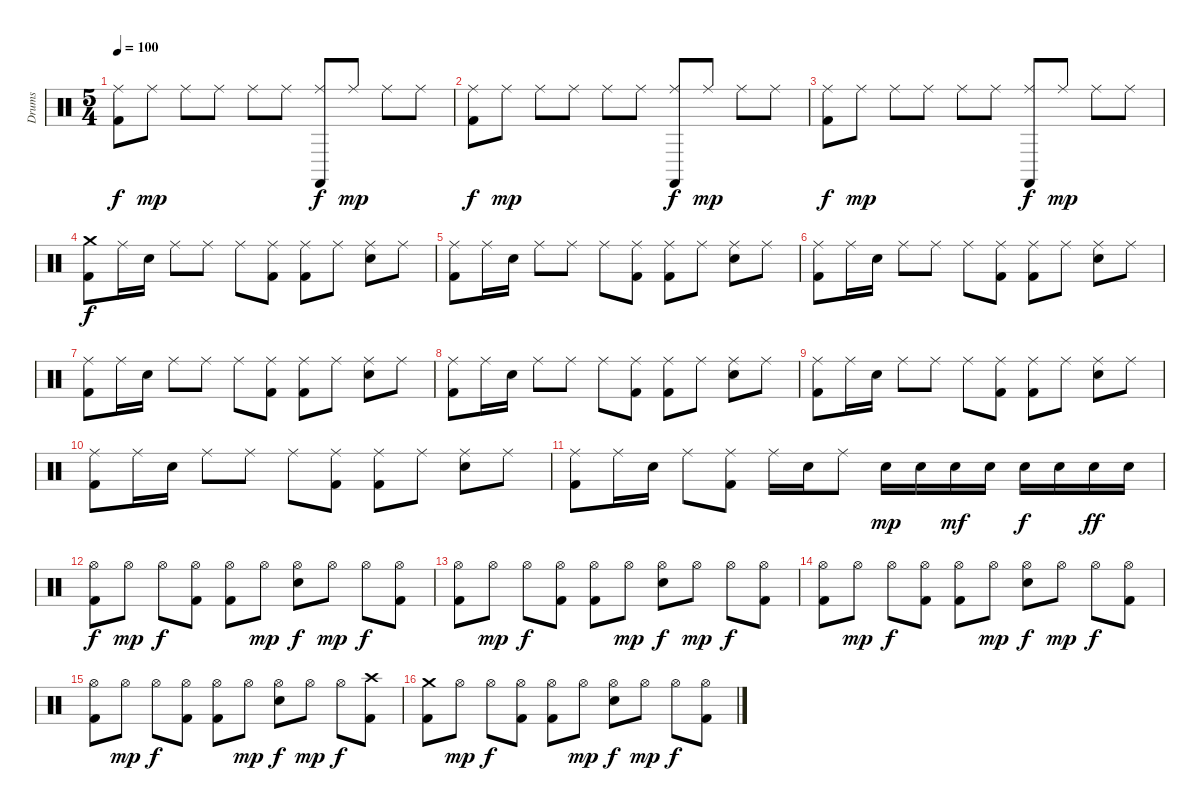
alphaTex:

\track ("Drums" "Drums") {instrument percussion}
\staff {score}
\articulation defaults
\ts (5 4)
\tempo 100
\clef neutral
\ks c
("Ride (middle)" "Kick (hit) 2").8{dy f} "Ride (middle)".8{dy mp} "Ride (middle)".8 "Ride (middle)".8 "Ride (middle)".8 "Ride (middle)".8 ("Ride (middle)" "Castanets (hit)").8{dy f} "Ride (middle)".8{dy mp} "Ride (middle)".8 "Ride (middle)".8 |
("Ride (middle)" "Kick (hit) 2").8{dy f} "Ride (middle)".8{dy mp} "Ride (middle)".8 "Ride (middle)".8 "Ride (middle)".8 "Ride (middle)".8 ("Ride (middle)" "Castanets (hit)").8{dy f} "Ride (middle)".8{dy mp} "Ride (middle)".8 "Ride (middle)".8 |
("Ride (middle)" "Kick (hit) 2").8{dy f} "Ride (middle)".8{dy mp} "Ride (middle)".8 "Ride (middle)".8 "Ride (middle)".8 "Ride (middle)".8 ("Ride (middle)" "Castanets (hit)").8{dy f} "Ride (middle)".8{dy mp} "Ride (middle)".8 "Ride (middle)".8 |
("Crash medium (hit)" "Kick (hit) 2").8{dy f} "Ride (middle)".16 "Snare (hit) 2".16 "Ride (middle)".8 "Ride (middle)".8 "Ride (middle)".8 ("Ride (middle)" "Kick (hit) 2").8 ("Ride (middle)" "Kick (hit) 2").8 "Ride (middle)".8 ("Ride (middle)" "Snare (hit) 2").8 "Ride (middle)".8 |
("Ride (middle)" "Kick (hit) 2").8 "Ride (middle)".16 "Snare (hit) 2".16 "Ride (middle)".8 "Ride (middle)".8 "Ride (middle)".8 ("Ride (middle)" "Kick (hit) 2").8 ("Ride (middle)" "Kick (hit) 2").8 "Ride (middle)".8 ("Ride (middle)" "Snare (hit) 2").8 "Ride (middle)".8 |
("Ride (middle)" "Kick (hit) 2").8 "Ride (middle)".16 "Snare (hit) 2".16 "Ride (middle)".8 "Ride (middle)".8 "Ride (middle)".8 ("Ride (middle)" "Kick (hit) 2").8 ("Ride (middle)" "Kick (hit) 2").8 "Ride (middle)".8 ("Ride (middle)" "Snare (hit) 2").8 "Ride (middle)".8 |
("Ride (middle)" "Kick (hit) 2").8 "Ride (middle)".16 "Snare (hit) 2".16 "Ride (middle)".8 "Ride (middle)".8 "Ride (middle)".8 ("Ride (middle)" "Kick (hit) 2").8 ("Ride (middle)" "Kick (hit) 2").8 "Ride (middle)".8 ("Ride (middle)" "Snare (hit) 2").8 "Ride (middle)".8 |
("Ride (middle)" "Kick (hit) 2").8 "Ride (middle)".16 "Snare (hit) 2".16 "Ride (middle)".8 "Ride (middle)".8 "Ride (middle)".8 ("Ride (middle)" "Kick (hit) 2").8 ("Ride (middle)" "Kick (hit) 2").8 "Ride (middle)".8 ("Ride (middle)" "Snare (hit) 2").8 "Ride (middle)".8 |
("Ride (middle)" "Kick (hit) 2").8 "Ride (middle)".16 "Snare (hit) 2".16 "Ride (middle)".8 "Ride (middle)".8 "Ride (middle)".8 ("Ride (middle)" "Kick (hit) 2").8 ("Ride (middle)" "Kick (hit) 2").8 "Ride (middle)".8 ("Ride (middle)" "Snare (hit) 2").8 "Ride (middle)".8 |
("Ride (middle)" "Kick (hit) 2").8 "Ride (middle)".16 "Snare (hit) 2".16 "Ride (middle)".8 "Ride (middle)".8 "Ride (middle)".8 ("Ride (middle)" "Kick (hit) 2").8 ("Ride (middle)" "Kick (hit) 2").8 "Ride (middle)".8 ("Ride (middle)" "Snare (hit) 2").8 "Ride (middle)".8 |
("Ride (middle)" "Kick (hit) 2").8 "Ride (middle)".16 "Snare (hit) 2".16 "Ride (middle)".8 ("Ride (middle)" "Kick (hit) 2").8 "Ride (middle)".16 "Snare (hit) 2".16 "Ride (middle)".8 "Snare (hit) 2".16{dy mp} "Snare (hit) 2".16 "Snare (hit) 2".16{dy mf} "Snare (hit) 2".16 "Snare (hit) 2".16{dy f} "Snare (hit) 2".16 "Snare (hit) 2".16{dy ff} "Snare (hit) 2".16 |
("Hi-Hat (open)" "Kick (hit) 2").8{dy f} "Hi-Hat (open)".8{dy mp} "Hi-Hat (open)".8{dy f} ("Hi-Hat (open)" "Kick (hit) 2").8 ("Hi-Hat (open)" "Kick (hit) 2").8 "Hi-Hat (open)".8{dy mp} ("Hi-Hat (open)" "Snare (hit) 2").8{dy f} "Hi-Hat (open)".8{dy mp} "Hi-Hat (open)".8{dy f} ("Hi-Hat (open)" "Kick (hit) 2").8 |
("Hi-Hat (open)" "Kick (hit) 2").8 "Hi-Hat (open)".8{dy mp} "Hi-Hat (open)".8{dy f} ("Hi-Hat (open)" "Kick (hit) 2").8 ("Hi-Hat (open)" "Kick (hit) 2").8 "Hi-Hat (open)".8{dy mp} ("Hi-Hat (open)" "Snare (hit) 2").8{dy f} "Hi-Hat (open)".8{dy mp} "Hi-Hat (open)".8{dy f} ("Hi-Hat (open)" "Kick (hit) 2").8 |
("Hi-Hat (open)" "Kick (hit) 2").8 "Hi-Hat (open)".8{dy mp} "Hi-Hat (open)".8{dy f} ("Hi-Hat (open)" "Kick (hit) 2").8 ("Hi-Hat (open)" "Kick (hit) 2").8 "Hi-Hat (open)".8{dy mp} ("Hi-Hat (open)" "Snare (hit) 2").8{dy f} "Hi-Hat (open)".8{dy mp} "Hi-Hat (open)".8{dy f} ("Hi-Hat (open)" "Kick (hit) 2").8 |
("Hi-Hat (open)" "Kick (hit) 2").8 "Hi-Hat (open)".8{dy mp} "Hi-Hat (open)".8{dy f} ("Hi-Hat (open)" "Kick (hit) 2").8 ("Hi-Hat (open)" "Kick (hit) 2").8 "Hi-Hat (open)".8{dy mp} ("Hi-Hat (open)" "Snare (hit) 2").8{dy f} "Hi-Hat (open)".8{dy mp} "Hi-Hat (open)".8{dy f} ("Crash high (hit)" "Kick (hit) 2").8 |
("Crash medium (hit)" "Kick (hit) 2").8 "Hi-Hat (open)".8{dy mp} "Hi-Hat (open)".8{dy f} ("Hi-Hat (open)" "Kick (hit) 2").8 ("Hi-Hat (open)" "Kick (hit) 2").8 "Hi-Hat (open)".8{dy mp} ("Hi-Hat (open)" "Snare (hit) 2").8{dy f} "Hi-Hat (open)".8{dy mp} "Hi-Hat (open)".8{dy f} ("Hi-Hat (open)" "Kick (hit) 2").8
